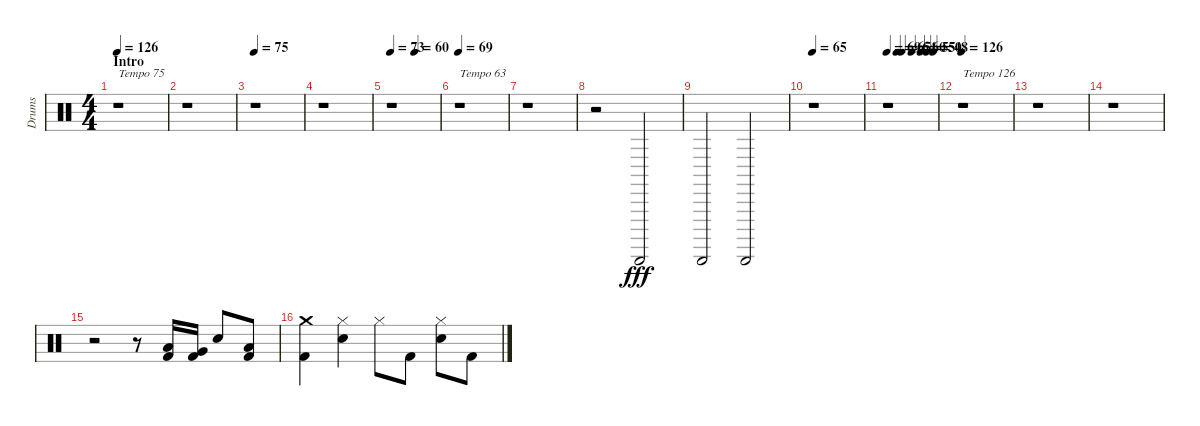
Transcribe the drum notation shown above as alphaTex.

\track ("Drums" "Drums") {instrument percussion}
\staff {score}
\articulation defaults
\ts (4 4)
\section ("" "Intro")
\tempo 126
\tempo 73
\tempo 126
\clef neutral
\ks c
r.1{txt "Tempo 75" dy fff} |
r.1 |
\tempo 75
r.1 |
r.1 |
\tempo 73
\tempo (60 0.5)
r.1 |
\tempo 69
r.1{txt "Tempo 63"} |
r.1 |
r.2 "Guiro (scrap-return)".2 |
"Guiro (scrap-return)".2 "Guiro (scrap-return)".2 |
\tempo 65
r.1 |
\tempo 69
\tempo (65 0.2)
\tempo (64 0.3)
\tempo (60 0.5)
\tempo (55 0.6875)
\tempo (50 0.8125)
\tempo (48 0.9375)
r.1 |
\tempo 126
r.1{txt "Tempo 126"} |
r.1 |
r.1 |
r.2 r.8 ("Low Tom (hit)" "Kick (hit) 2").16 ("Very Low Tom (hit)" "Kick (hit) 2").16 "Electric Snare (hit)".8 ("Low Tom (hit)" "Kick (hit) 2").8 |
("Crash medium (hit)" "Kick (hit) 2").4 ("Hi-Hat (closed)" "Electric Snare (hit)").4 "Hi-Hat (closed)".8 "Kick (hit) 2".8 ("Hi-Hat (closed)" "Electric Snare (hit)").8 "Kick (hit) 2".8
